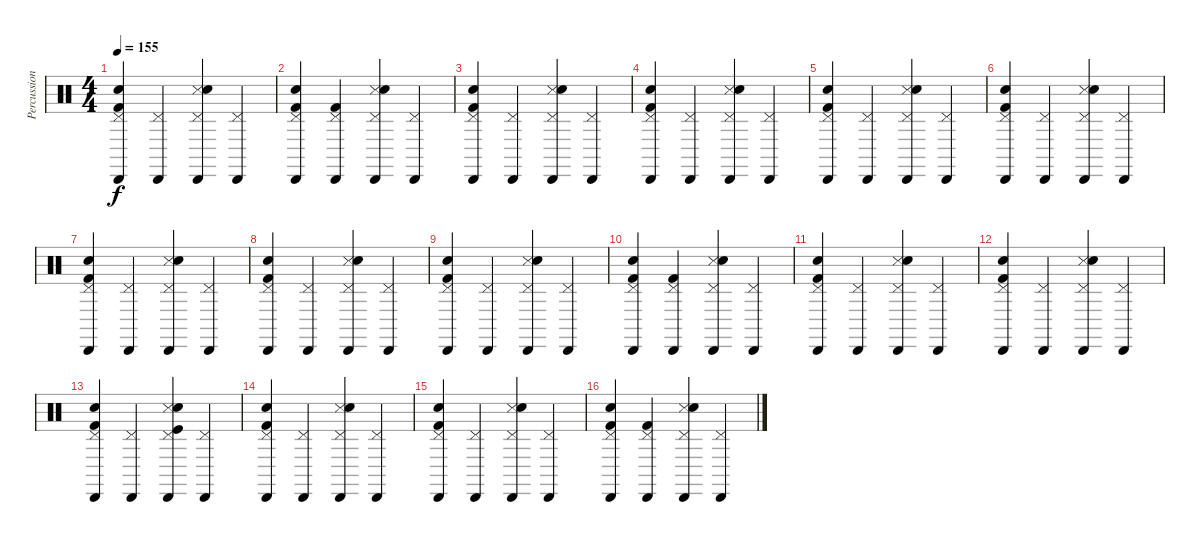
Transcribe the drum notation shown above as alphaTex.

\track ("Percussion" "Percussion") {instrument percussion}
\staff {score}
\articulation defaults
\ts (4 4)
\tempo 155
\clef neutral
\ks c
("Electric Snare (hit)" "Cabasa (hit)" "Pedal Hi-Hat (hit)" "Kick (hit) 2").4{dy f} ("Cabasa (hit)" "Pedal Hi-Hat (hit)").4 ("Snare (side stick) 3" "Snare (hit) 2" "Cabasa (hit)" "Pedal Hi-Hat (hit)").4 ("Cabasa (hit)" "Pedal Hi-Hat (hit)").4 |
("Electric Snare (hit)" "Cabasa (hit)" "Pedal Hi-Hat (hit)" "Kick (hit) 2").4 ("Cabasa (hit)" "Pedal Hi-Hat (hit)" "Kick (hit) 2").4 ("Snare (side stick) 3" "Snare (hit) 2" "Cabasa (hit)" "Pedal Hi-Hat (hit)").4 ("Cabasa (hit)" "Pedal Hi-Hat (hit)").4 |
("Electric Snare (hit)" "Cabasa (hit)" "Pedal Hi-Hat (hit)" "Kick (hit) 2").4 ("Cabasa (hit)" "Pedal Hi-Hat (hit)").4 ("Snare (side stick) 3" "Snare (hit) 2" "Cabasa (hit)" "Pedal Hi-Hat (hit)").4 ("Cabasa (hit)" "Pedal Hi-Hat (hit)").4 |
("Electric Snare (hit)" "Cabasa (hit)" "Pedal Hi-Hat (hit)" "Kick (hit) 2").4 ("Cabasa (hit)" "Pedal Hi-Hat (hit)").4 ("Snare (side stick) 3" "Snare (hit) 2" "Cabasa (hit)" "Pedal Hi-Hat (hit)").4 ("Cabasa (hit)" "Pedal Hi-Hat (hit)").4 |
("Electric Snare (hit)" "Cabasa (hit)" "Pedal Hi-Hat (hit)" "Kick (hit) 2").4 ("Cabasa (hit)" "Pedal Hi-Hat (hit)").4 ("Snare (side stick) 3" "Snare (hit) 2" "Cabasa (hit)" "Pedal Hi-Hat (hit)").4 ("Cabasa (hit)" "Pedal Hi-Hat (hit)").4 |
("Electric Snare (hit)" "Cabasa (hit)" "Pedal Hi-Hat (hit)" "Kick (hit) 2").4 ("Cabasa (hit)" "Pedal Hi-Hat (hit)").4 ("Snare (side stick) 3" "Snare (hit) 2" "Cabasa (hit)" "Pedal Hi-Hat (hit)").4 ("Cabasa (hit)" "Pedal Hi-Hat (hit)").4 |
("Electric Snare (hit)" "Cabasa (hit)" "Pedal Hi-Hat (hit)" "Kick (hit) 2").4 ("Cabasa (hit)" "Pedal Hi-Hat (hit)").4 ("Snare (side stick) 3" "Snare (hit) 2" "Cabasa (hit)" "Pedal Hi-Hat (hit)").4 ("Cabasa (hit)" "Pedal Hi-Hat (hit)").4 |
("Electric Snare (hit)" "Cabasa (hit)" "Pedal Hi-Hat (hit)" "Kick (hit) 2").4 ("Cabasa (hit)" "Pedal Hi-Hat (hit)").4 ("Snare (side stick) 3" "Snare (hit) 2" "Cabasa (hit)" "Pedal Hi-Hat (hit)").4 ("Cabasa (hit)" "Pedal Hi-Hat (hit)").4 |
("Electric Snare (hit)" "Cabasa (hit)" "Pedal Hi-Hat (hit)" "Kick (hit) 2").4 ("Cabasa (hit)" "Pedal Hi-Hat (hit)").4 ("Snare (side stick) 3" "Snare (hit) 2" "Cabasa (hit)" "Pedal Hi-Hat (hit)").4 ("Cabasa (hit)" "Pedal Hi-Hat (hit)").4 |
("Electric Snare (hit)" "Cabasa (hit)" "Pedal Hi-Hat (hit)" "Kick (hit) 2").4 ("Cabasa (hit)" "Pedal Hi-Hat (hit)" "Kick (hit) 2").4 ("Snare (side stick) 3" "Snare (hit) 2" "Cabasa (hit)" "Pedal Hi-Hat (hit)").4 ("Cabasa (hit)" "Pedal Hi-Hat (hit)").4 |
("Electric Snare (hit)" "Cabasa (hit)" "Pedal Hi-Hat (hit)" "Kick (hit) 2").4 ("Cabasa (hit)" "Pedal Hi-Hat (hit)").4 ("Snare (side stick) 3" "Snare (hit) 2" "Cabasa (hit)" "Pedal Hi-Hat (hit)").4 ("Cabasa (hit)" "Pedal Hi-Hat (hit)").4 |
("Electric Snare (hit)" "Cabasa (hit)" "Pedal Hi-Hat (hit)" "Kick (hit) 2").4 ("Cabasa (hit)" "Pedal Hi-Hat (hit)").4 ("Snare (side stick) 3" "Snare (hit) 2" "Cabasa (hit)" "Pedal Hi-Hat (hit)").4 ("Cabasa (hit)" "Pedal Hi-Hat (hit)").4 |
("Electric Snare (hit)" "Cabasa (hit)" "Pedal Hi-Hat (hit)" "Kick (hit) 2").4 ("Cabasa (hit)" "Pedal Hi-Hat (hit)").4 ("Snare (side stick) 3" "Snare (hit) 2" "Cabasa (hit)" "Pedal Hi-Hat (hit)" "Kick (hit)").4 ("Cabasa (hit)" "Pedal Hi-Hat (hit)").4 |
("Electric Snare (hit)" "Cabasa (hit)" "Pedal Hi-Hat (hit)" "Kick (hit) 2").4 ("Cabasa (hit)" "Pedal Hi-Hat (hit)").4 ("Snare (side stick) 3" "Snare (hit) 2" "Cabasa (hit)" "Pedal Hi-Hat (hit)").4 ("Cabasa (hit)" "Pedal Hi-Hat (hit)").4 |
("Electric Snare (hit)" "Cabasa (hit)" "Pedal Hi-Hat (hit)" "Kick (hit) 2").4 ("Cabasa (hit)" "Pedal Hi-Hat (hit)").4 ("Snare (side stick) 3" "Snare (hit) 2" "Cabasa (hit)" "Pedal Hi-Hat (hit)").4 ("Cabasa (hit)" "Pedal Hi-Hat (hit)").4 |
("Electric Snare (hit)" "Cabasa (hit)" "Pedal Hi-Hat (hit)" "Kick (hit) 2").4 ("Cabasa (hit)" "Pedal Hi-Hat (hit)" "Kick (hit) 2").4 ("Snare (side stick) 3" "Snare (hit) 2" "Cabasa (hit)" "Pedal Hi-Hat (hit)").4 ("Cabasa (hit)" "Pedal Hi-Hat (hit)").4
